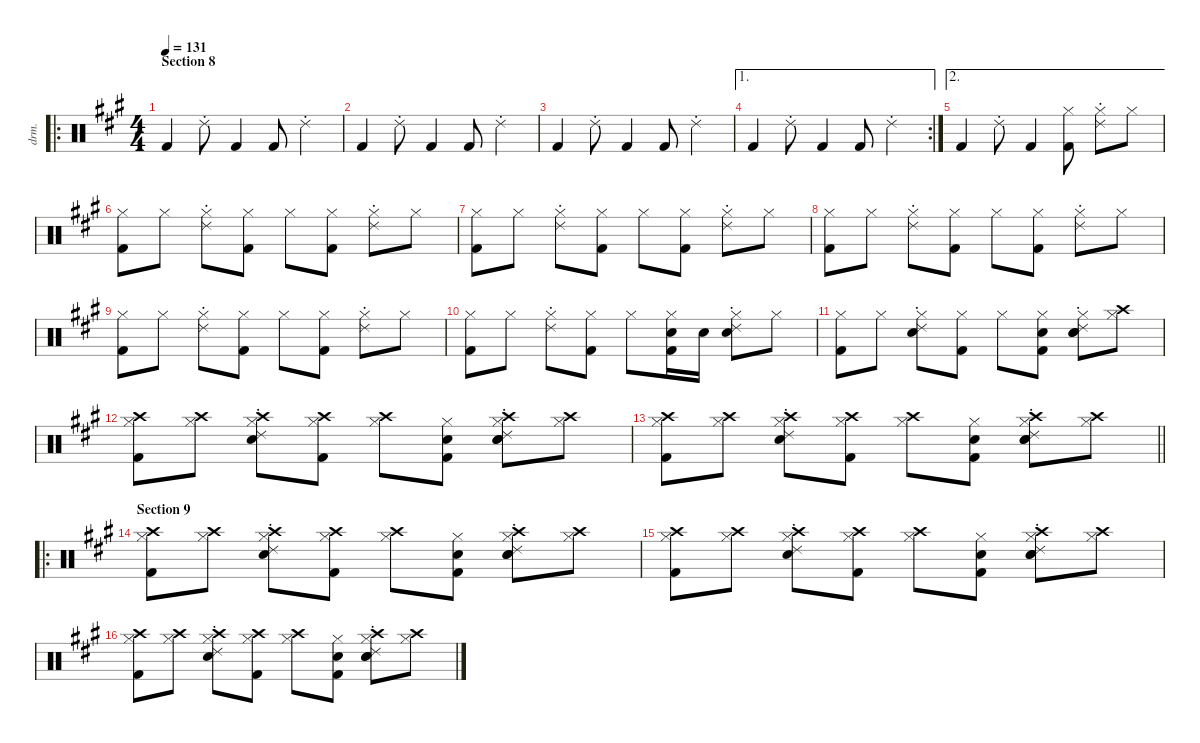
\defaultSystemsLayout 4
\hideDynamics
\bracketExtendMode nobrackets
\otherSystemsTrackNameOrientation horizontal
\track ("Percussion" "drm.") {defaultSystemsLayout 4 instrument percussion}
\staff {score}
\articulation defaults
\ro
\ts (4 4)
\section ("" "Section 8")
\tempo 131
\clef neutral
\ks f#minor "Kick (hit) 2"{acc forcenatural}.4{dy f beam Up} "Ride (choke) 2"{acc forcenatural}.8{beam Down} "Kick (hit) 2"{acc forcenatural}.4{beam Up} "Kick (hit) 2"{acc forcenatural}.8{beam Up} "Ride (choke) 2"{acc forcenatural}.4{beam Down}
|
"Kick (hit) 2"{acc forcenatural}.4{beam Up} "Ride (choke) 2"{acc forcenatural}.8{beam Down} "Kick (hit) 2"{acc forcenatural}.4{beam Up} "Kick (hit) 2"{acc forcenatural}.8{beam Up} "Ride (choke) 2"{acc forcenatural}.4{beam Down} |
"Kick (hit) 2"{acc forcenatural}.4{beam Up} "Ride (choke) 2"{acc forcenatural}.8{beam Down} "Kick (hit) 2"{acc forcenatural}.4{beam Up} "Kick (hit) 2"{acc forcenatural}.8{beam Up} "Ride (choke) 2"{acc forcenatural}.4{beam Down} |
\ae 1
\rc 2 "Kick (hit) 2"{acc forcenatural}.4{beam Up} "Ride (choke) 2"{acc forcenatural}.8{beam Down} "Kick (hit) 2"{acc forcenatural}.4{beam Up} "Kick (hit) 2"{acc forcenatural}.8{beam Up} "Ride (choke) 2"{acc forcenatural}.4{beam Down}
|
\ae 2 "Kick (hit) 2"{acc forcenatural}.4{beam Up} "Ride (choke) 2"{acc forcenatural}.8{beam Down} "Kick (hit) 2"{acc forcenatural}.4{beam Up}
("Hi-Hat (closed)"{acc forcenatural} "Kick (hit) 2"{acc forcenatural}).8{beam Down} ("Hi-Hat (closed)"{acc forcenatural} "Ride (choke) 2"{acc forcenatural}).8{beam Down} "Hi-Hat (closed)"{acc forcenatural}.8{beam Down} |
("Hi-Hat (closed)"{acc forcenatural} "Kick (hit) 2"{acc forcenatural}).8{beam Down} "Hi-Hat (closed)"{acc forcenatural}.8{beam Down} ("Hi-Hat (closed)"{acc forcenatural} "Ride (choke) 2"{acc forcenatural}).8{beam Down} ("Hi-Hat (closed)"{acc forcenatural} "Kick (hit) 2"{acc forcenatural}).8{beam Down} "Hi-Hat (closed)"{acc forcenatural}.8{beam Down} ("Hi-Hat (closed)"{acc forcenatural} "Kick (hit) 2"{acc forcenatural}).8{beam Down} ("Hi-Hat (closed)"{acc forcenatural} "Ride (choke) 2"{acc forcenatural}).8{beam Down} "Hi-Hat (closed)"{acc forcenatural}.8{beam Down} |
("Hi-Hat (closed)"{acc forcenatural} "Kick (hit) 2"{acc forcenatural}).8{beam Down} "Hi-Hat (closed)"{acc forcenatural}.8{beam Down} ("Hi-Hat (closed)"{acc forcenatural} "Ride (choke) 2"{acc forcenatural}).8{beam Down} ("Hi-Hat (closed)"{acc forcenatural} "Kick (hit) 2"{acc forcenatural}).8{beam Down} "Hi-Hat (closed)"{acc forcenatural}.8{beam Down} ("Hi-Hat (closed)"{acc forcenatural} "Kick (hit) 2"{acc forcenatural}).8{beam Down} ("Hi-Hat (closed)"{acc forcenatural} "Ride (choke) 2"{acc forcenatural}).8{beam Down} "Hi-Hat (closed)"{acc forcenatural}.8{beam Down} |
("Hi-Hat (closed)"{acc forcenatural} "Kick (hit) 2"{acc forcenatural}).8{beam Down} "Hi-Hat (closed)"{acc forcenatural}.8{beam Down} ("Hi-Hat (closed)"{acc forcenatural} "Ride (choke) 2"{acc forcenatural}).8{beam Down} ("Hi-Hat (closed)"{acc forcenatural} "Kick (hit) 2"{acc forcenatural}).8{beam Down} "Hi-Hat (closed)"{acc forcenatural}.8{beam Down} ("Hi-Hat (closed)"{acc forcenatural} "Kick (hit) 2"{acc forcenatural}).8{beam Down} ("Hi-Hat (closed)"{acc forcenatural} "Ride (choke) 2"{acc forcenatural}).8{beam Down} "Hi-Hat (closed)"{acc forcenatural}.8{beam Down} |
("Hi-Hat (closed)"{acc forcenatural} "Kick (hit) 2"{acc forcenatural}).8{beam Down} "Hi-Hat (closed)"{acc forcenatural}.8{beam Down} ("Hi-Hat (closed)"{acc forcenatural} "Ride (choke) 2"{acc forcenatural}).8{beam Down} ("Hi-Hat (closed)"{acc forcenatural} "Kick (hit) 2"{acc forcenatural}).8{beam Down} "Hi-Hat (closed)"{acc forcenatural}.8{beam Down} ("Hi-Hat (closed)"{acc forcenatural} "Kick (hit) 2"{acc forcenatural}).8{beam Down} ("Hi-Hat (closed)"{acc forcenatural} "Ride (choke) 2"{acc forcenatural}).8{beam Down} "Hi-Hat (closed)"{acc forcenatural}.8{beam Down} |
("Hi-Hat (closed)"{acc forcenatural} "Kick (hit) 2"{acc forcenatural}).8{beam Down} "Hi-Hat (closed)"{acc forcenatural}.8{beam Down} ("Hi-Hat (closed)"{acc forcenatural} "Ride (choke) 2"{acc forcenatural}).8{beam Down} ("Hi-Hat (closed)"{acc forcenatural} "Kick (hit) 2"{acc forcenatural}).8{beam Down} "Hi-Hat (closed)"{acc forcenatural}.8{beam Down} ("Hi-Hat (closed)"{acc forcenatural} "Hand Clap (hit)"{acc forcenatural} "Kick (hit) 2"{acc forcenatural}).16{beam Down} "Hand Clap (hit)"{acc forcenatural}.16{beam Down} ("Hi-Hat (closed)"{acc forcenatural} "Hand Clap (hit)"{acc forcenatural} "Ride (choke) 2"{acc forcenatural}).8{beam Down} "Hi-Hat (closed)"{acc forcenatural}.8{beam Down} |
("Hi-Hat (closed)"{acc forcenatural} "Kick (hit) 2"{acc forcenatural}).8{beam Down} "Hi-Hat (closed)"{acc forcenatural}.8{beam Down} ("Hi-Hat (closed)"{acc forcenatural} "Snare (hit) 2"{acc forcenatural} "Ride (choke) 2"{acc forcenatural}).8{beam Down} ("Hi-Hat (closed)"{acc forcenatural} "Kick (hit) 2"{acc forcenatural}).8{beam Down} "Hi-Hat (closed)"{acc forcenatural}.8{beam Down} ("Hi-Hat (closed)"{acc forcenatural} "Hand Clap (hit)"{acc forcenatural} "Kick (hit) 2"{acc forcenatural}).8{beam Down} ("Hi-Hat (closed)"{acc forcenatural} "Hand Clap (hit)"{acc forcenatural} "Snare (hit) 2"{acc forcenatural} "Ride (choke) 2"{acc forcenatural}).8{beam Down} ("Crash high (hit)"{acc forcenatural} "Hi-Hat (closed)"{acc forcenatural}).8{beam Down} |
("Crash high (hit)"{acc forcenatural} "Hi-Hat (closed)"{acc forcenatural} "Kick (hit) 2"{acc forcenatural}).8{beam Down} ("Crash high (hit)"{acc forcenatural} "Hi-Hat (closed)"{acc forcenatural}).8{beam Down} ("Crash high (hit)"{acc forcenatural} "Hi-Hat (closed)"{acc forcenatural} "Snare (hit) 2"{acc forcenatural} "Ride (choke) 2"{acc forcenatural}).8{beam Down} ("Crash high (hit)"{acc forcenatural} "Hi-Hat (closed)"{acc forcenatural} "Kick (hit) 2"{acc forcenatural}).8{beam Down} ("Crash high (hit)"{acc forcenatural} "Hi-Hat (closed)"{acc forcenatural}).8{beam Down} ("Hi-Hat (closed)"{acc forcenatural} "Hand Clap (hit)"{acc forcenatural} "Kick (hit) 2"{acc forcenatural}).8{beam Down} ("Crash high (hit)"{acc forcenatural} "Hi-Hat (closed)"{acc forcenatural} "Hand Clap (hit)"{acc forcenatural} "Snare (hit) 2"{acc forcenatural} "Ride (choke) 2"{acc forcenatural}).8{beam Down} ("Crash high (hit)"{acc forcenatural} "Hi-Hat (closed)"{acc forcenatural}).8{beam Down} |
\barLineRight lightlight
("Crash high (hit)"{acc forcenatural} "Hi-Hat (closed)"{acc forcenatural} "Kick (hit) 2"{acc forcenatural}).8{beam Down} ("Crash high (hit)"{acc forcenatural} "Hi-Hat (closed)"{acc forcenatural}).8{beam Down} ("Crash high (hit)"{acc forcenatural} "Hi-Hat (closed)"{acc forcenatural} "Snare (hit) 2"{acc forcenatural} "Ride (choke) 2"{acc forcenatural}).8{beam Down} ("Crash high (hit)"{acc forcenatural} "Hi-Hat (closed)"{acc forcenatural} "Kick (hit) 2"{acc forcenatural}).8{beam Down} ("Crash high (hit)"{acc forcenatural} "Hi-Hat (closed)"{acc forcenatural}).8{beam Down} ("Hi-Hat (closed)"{acc forcenatural} "Hand Clap (hit)"{acc forcenatural} "Kick (hit) 2"{acc forcenatural}).8{beam Down} ("Crash high (hit)"{acc forcenatural} "Hi-Hat (closed)"{acc forcenatural} "Hand Clap (hit)"{acc forcenatural} "Snare (hit) 2"{acc forcenatural} "Ride (choke) 2"{acc forcenatural}).8{beam Down} ("Crash high (hit)"{acc forcenatural} "Hi-Hat (closed)"{acc forcenatural}).8{beam Down} |
\ro
\section ("" "Section 9")
("Crash high (hit)"{acc forcenatural} "Hi-Hat (closed)"{acc forcenatural} "Kick (hit) 2"{acc forcenatural}).8{beam Down} ("Crash high (hit)"{acc forcenatural} "Hi-Hat (closed)"{acc forcenatural}).8{beam Down} ("Crash high (hit)"{acc forcenatural} "Hi-Hat (closed)"{acc forcenatural} "Snare (hit) 2"{acc forcenatural} "Ride (choke) 2"{acc forcenatural}).8{beam Down} ("Crash high (hit)"{acc forcenatural} "Hi-Hat (closed)"{acc forcenatural} "Kick (hit) 2"{acc forcenatural}).8{beam Down} ("Crash high (hit)"{acc forcenatural} "Hi-Hat (closed)"{acc forcenatural}).8{beam Down} ("Hi-Hat (closed)"{acc forcenatural} "Hand Clap (hit)"{acc forcenatural} "Kick (hit) 2"{acc forcenatural}).8{beam Down} ("Crash high (hit)"{acc forcenatural} "Hi-Hat (closed)"{acc forcenatural} "Hand Clap (hit)"{acc forcenatural} "Snare (hit) 2"{acc forcenatural} "Ride (choke) 2"{acc forcenatural}).8{beam Down} ("Crash high (hit)"{acc forcenatural} "Hi-Hat (closed)"{acc forcenatural}).8{beam Down} |
("Crash high (hit)"{acc forcenatural} "Hi-Hat (closed)"{acc forcenatural} "Kick (hit) 2"{acc forcenatural}).8{beam Down} ("Crash high (hit)"{acc forcenatural} "Hi-Hat (closed)"{acc forcenatural}).8{beam Down} ("Crash high (hit)"{acc forcenatural} "Hi-Hat (closed)"{acc forcenatural} "Snare (hit) 2"{acc forcenatural} "Ride (choke) 2"{acc forcenatural}).8{beam Down} ("Crash high (hit)"{acc forcenatural} "Hi-Hat (closed)"{acc forcenatural} "Kick (hit) 2"{acc forcenatural}).8{beam Down} ("Crash high (hit)"{acc forcenatural} "Hi-Hat (closed)"{acc forcenatural}).8{beam Down} ("Hi-Hat (closed)"{acc forcenatural} "Hand Clap (hit)"{acc forcenatural} "Kick (hit) 2"{acc forcenatural}).8{beam Down} ("Crash high (hit)"{acc forcenatural} "Hi-Hat (closed)"{acc forcenatural} "Hand Clap (hit)"{acc forcenatural} "Snare (hit) 2"{acc forcenatural} "Ride (choke) 2"{acc forcenatural}).8{beam Down} ("Crash high (hit)"{acc forcenatural} "Hi-Hat (closed)"{acc forcenatural}).8{beam Down} |
("Crash high (hit)"{acc forcenatural} "Hi-Hat (closed)"{acc forcenatural} "Kick (hit) 2"{acc forcenatural}).8{beam Down} ("Crash high (hit)"{acc forcenatural} "Hi-Hat (closed)"{acc forcenatural}).8{beam Down} ("Crash high (hit)"{acc forcenatural} "Hi-Hat (closed)"{acc forcenatural} "Snare (hit) 2"{acc forcenatural} "Ride (choke) 2"{acc forcenatural}).8{beam Down} ("Crash high (hit)"{acc forcenatural} "Hi-Hat (closed)"{acc forcenatural} "Kick (hit) 2"{acc forcenatural}).8{beam Down} ("Crash high (hit)"{acc forcenatural} "Hi-Hat (closed)"{acc forcenatural}).8{beam Down} ("Hi-Hat (closed)"{acc forcenatural} "Hand Clap (hit)"{acc forcenatural} "Kick (hit) 2"{acc forcenatural}).8{beam Down} ("Crash high (hit)"{acc forcenatural} "Hi-Hat (closed)"{acc forcenatural} "Hand Clap (hit)"{acc forcenatural} "Snare (hit) 2"{acc forcenatural} "Ride (choke) 2"{acc forcenatural}).8{beam Down} ("Crash high (hit)"{acc forcenatural} "Hi-Hat (closed)"{acc forcenatural}).8{beam Down}
